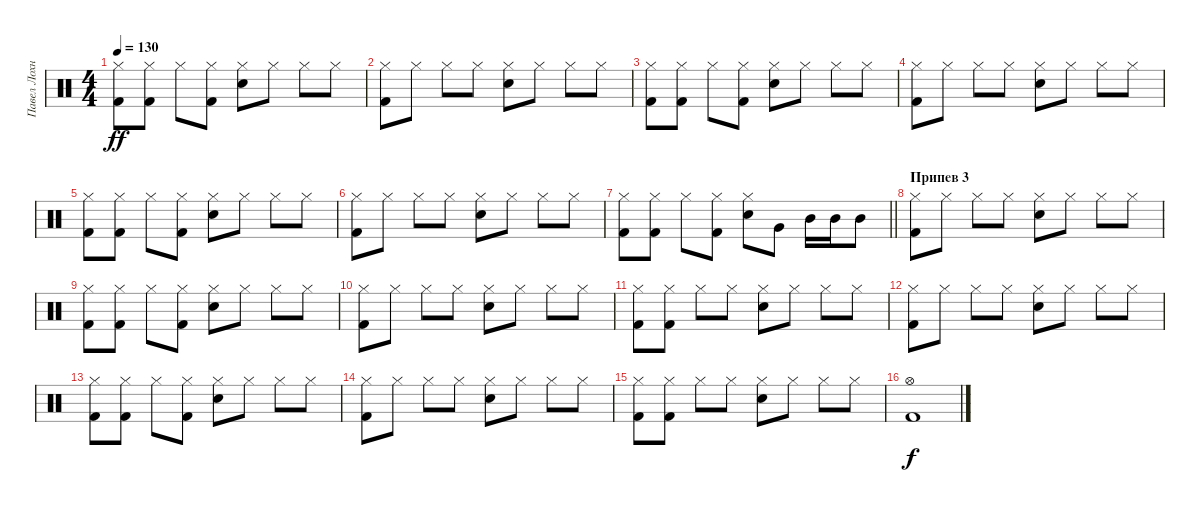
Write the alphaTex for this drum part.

\track ("Павел Лохнин" "Павел Лохн") {instrument percussion}
\staff {score}
\articulation defaults
\ts (4 4)
\tempo 130
\clef neutral
\ks c
("Hi-Hat (closed)" "Kick (hit) 2").8{dy ff} ("Hi-Hat (closed)" "Kick (hit) 2").8 "Hi-Hat (closed)".8 ("Hi-Hat (closed)" "Kick (hit) 2").8 ("Hi-Hat (closed)" "Electric Snare (hit)").8 "Hi-Hat (closed)".8 "Hi-Hat (closed)".8 "Hi-Hat (closed)".8 |
("Hi-Hat (closed)" "Kick (hit) 2").8 "Hi-Hat (closed)".8 "Hi-Hat (closed)".8 "Hi-Hat (closed)".8 ("Hi-Hat (closed)" "Electric Snare (hit)").8 "Hi-Hat (closed)".8 "Hi-Hat (closed)".8 "Hi-Hat (closed)".8 |
("Hi-Hat (closed)" "Kick (hit) 2").8 ("Hi-Hat (closed)" "Kick (hit) 2").8 "Hi-Hat (closed)".8 ("Hi-Hat (closed)" "Kick (hit) 2").8 ("Hi-Hat (closed)" "Electric Snare (hit)").8 "Hi-Hat (closed)".8 "Hi-Hat (closed)".8 "Hi-Hat (closed)".8 |
("Hi-Hat (closed)" "Kick (hit) 2").8 "Hi-Hat (closed)".8 "Hi-Hat (closed)".8 "Hi-Hat (closed)".8 ("Hi-Hat (closed)" "Electric Snare (hit)").8 "Hi-Hat (closed)".8 "Hi-Hat (closed)".8 "Hi-Hat (closed)".8 |
("Hi-Hat (closed)" "Kick (hit) 2").8 ("Hi-Hat (closed)" "Kick (hit) 2").8 "Hi-Hat (closed)".8 ("Hi-Hat (closed)" "Kick (hit) 2").8 ("Hi-Hat (closed)" "Electric Snare (hit)").8 "Hi-Hat (closed)".8 "Hi-Hat (closed)".8 "Hi-Hat (closed)".8 |
("Hi-Hat (closed)" "Kick (hit) 2").8 "Hi-Hat (closed)".8 "Hi-Hat (closed)".8 "Hi-Hat (closed)".8 ("Hi-Hat (closed)" "Electric Snare (hit)").8 "Hi-Hat (closed)".8 "Hi-Hat (closed)".8 "Hi-Hat (closed)".8 |
\barLineRight lightlight
("Hi-Hat (closed)" "Kick (hit) 2").8 ("Hi-Hat (closed)" "Kick (hit) 2").8 "Hi-Hat (closed)".8 ("Hi-Hat (closed)" "Kick (hit) 2").8 ("Hi-Hat (closed)" "Electric Snare (hit)").8 "Very Low Tom (hit)".8 "Mid Tom (hit)".16 "Mid Tom (hit)".16 "Mid Tom (hit)".8 |
\section ("" "Припев 3")
("Hi-Hat (closed)" "Kick (hit) 2").8 "Hi-Hat (closed)".8 "Hi-Hat (closed)".8 "Hi-Hat (closed)".8 ("Hi-Hat (closed)" "Electric Snare (hit)").8 "Hi-Hat (closed)".8 "Hi-Hat (closed)".8 "Hi-Hat (closed)".8 |
("Hi-Hat (closed)" "Kick (hit) 2").8 ("Hi-Hat (closed)" "Kick (hit) 2").8 "Hi-Hat (closed)".8 ("Hi-Hat (closed)" "Kick (hit) 2").8 ("Hi-Hat (closed)" "Electric Snare (hit)").8 "Hi-Hat (closed)".8 "Hi-Hat (closed)".8 "Hi-Hat (closed)".8 |
("Hi-Hat (closed)" "Kick (hit) 2").8 "Hi-Hat (closed)".8 "Hi-Hat (closed)".8 "Hi-Hat (closed)".8 ("Hi-Hat (closed)" "Electric Snare (hit)").8 "Hi-Hat (closed)".8 "Hi-Hat (closed)".8 "Hi-Hat (closed)".8 |
("Hi-Hat (closed)" "Kick (hit) 2").8 ("Hi-Hat (closed)" "Kick (hit) 2").8 "Hi-Hat (closed)".8 "Hi-Hat (closed)".8 ("Hi-Hat (closed)" "Electric Snare (hit)").8 "Hi-Hat (closed)".8 "Hi-Hat (closed)".8 "Hi-Hat (closed)".8 |
("Hi-Hat (closed)" "Kick (hit) 2").8 "Hi-Hat (closed)".8 "Hi-Hat (closed)".8 "Hi-Hat (closed)".8 ("Hi-Hat (closed)" "Electric Snare (hit)").8 "Hi-Hat (closed)".8 "Hi-Hat (closed)".8 "Hi-Hat (closed)".8 |
("Hi-Hat (closed)" "Kick (hit) 2").8 ("Hi-Hat (closed)" "Kick (hit) 2").8 "Hi-Hat (closed)".8 ("Hi-Hat (closed)" "Kick (hit) 2").8 ("Hi-Hat (closed)" "Electric Snare (hit)").8 "Hi-Hat (closed)".8 "Hi-Hat (closed)".8 "Hi-Hat (closed)".8 |
("Hi-Hat (closed)" "Kick (hit) 2").8 "Hi-Hat (closed)".8 "Hi-Hat (closed)".8 "Hi-Hat (closed)".8 ("Hi-Hat (closed)" "Electric Snare (hit)").8 "Hi-Hat (closed)".8 "Hi-Hat (closed)".8 "Hi-Hat (closed)".8 |
("Hi-Hat (closed)" "Kick (hit) 2").8 ("Hi-Hat (closed)" "Kick (hit) 2").8 "Hi-Hat (closed)".8 "Hi-Hat (closed)".8 ("Hi-Hat (closed)" "Electric Snare (hit)").8 "Hi-Hat (closed)".8 "Hi-Hat (closed)".8 "Hi-Hat (closed)".8 |
("Hi-Hat (open)" "Kick (hit) 2").1{dy f}
